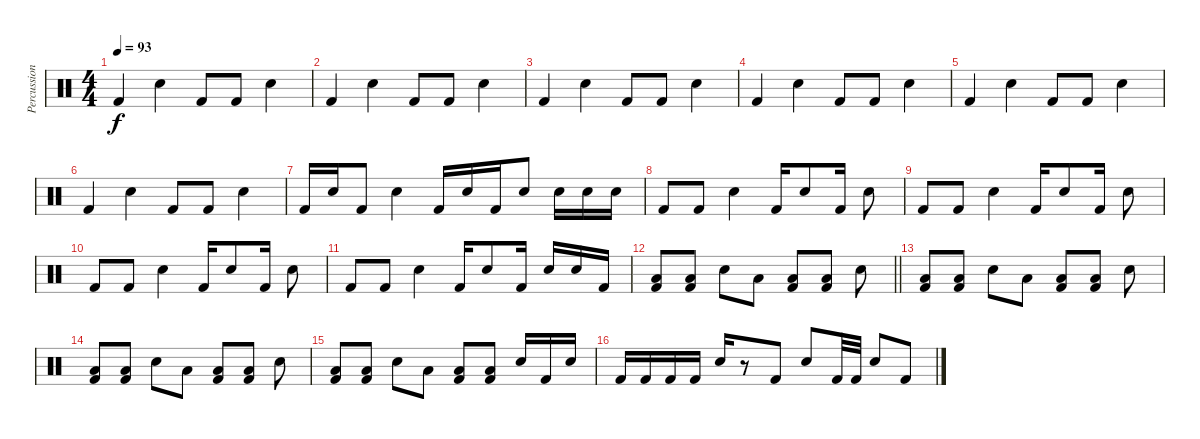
\track ("Percussion" "Percussion") {instrument percussion}
\staff {score}
\articulation defaults
\ts (4 4)
\tempo 93
\clef neutral
\ks c "Kick (hit) 2".4{dy f} "Snare (hit) 2".4 "Kick (hit) 2".8 "Kick (hit) 2".8 "Snare (hit) 2".4
|
"Kick (hit) 2".4 "Snare (hit) 2".4 "Kick (hit) 2".8 "Kick (hit) 2".8 "Snare (hit) 2".4 |
"Kick (hit) 2".4 "Snare (hit) 2".4 "Kick (hit) 2".8 "Kick (hit) 2".8 "Snare (hit) 2".4 |
"Kick (hit) 2".4 "Snare (hit) 2".4 "Kick (hit) 2".8 "Kick (hit) 2".8 "Snare (hit) 2".4 |
"Kick (hit) 2".4 "Snare (hit) 2".4 "Kick (hit) 2".8 "Kick (hit) 2".8 "Snare (hit) 2".4 |
"Kick (hit) 2".4 "Snare (hit) 2".4 "Kick (hit) 2".8 "Kick (hit) 2".8 "Snare (hit) 2".4 |
"Kick (hit) 2".16 "Snare (hit) 2".16 "Kick (hit) 2".8 "Snare (hit) 2".4 "Kick (hit) 2".16 "Snare (hit) 2".16 "Kick (hit) 2".16 "Snare (hit) 2".8 "Snare (hit) 2".16 "Snare (hit) 2".16 "Snare (hit) 2".16 |
"Kick (hit) 2".8 "Kick (hit) 2".8 "Snare (hit) 2".4 "Kick (hit) 2".16 "Snare (hit) 2".8 "Kick (hit) 2".16 "Snare (hit) 2".8 |
"Kick (hit) 2".8 "Kick (hit) 2".8 "Snare (hit) 2".4 "Kick (hit) 2".16 "Snare (hit) 2".8 "Kick (hit) 2".16 "Snare (hit) 2".8 |
"Kick (hit) 2".8 "Kick (hit) 2".8 "Snare (hit) 2".4 "Kick (hit) 2".16 "Snare (hit) 2".8 "Kick (hit) 2".16 "Snare (hit) 2".8 |
"Kick (hit) 2".8 "Kick (hit) 2".8 "Snare (hit) 2".4 "Kick (hit) 2".16 "Snare (hit) 2".8 "Kick (hit) 2".16 "Snare (hit) 2".16 "Snare (hit) 2".16 "Kick (hit) 2".16 |
\barLineRight lightlight
("Low Floor Tom (hit)" "Kick (hit) 2").8 ("Low Tom (hit)" "Kick (hit) 2").8 "Snare (hit) 2".8 "Low Tom (hit)".8 ("Low Floor Tom (hit)" "Kick (hit) 2").8 ("Low Tom (hit)" "Kick (hit) 2").8 "Snare (hit) 2".8 |
("Low Floor Tom (hit)" "Kick (hit) 2").8 ("Low Tom (hit)" "Kick (hit) 2").8 "Snare (hit) 2".8 "Low Tom (hit)".8 ("Low Floor Tom (hit)" "Kick (hit) 2").8 ("Low Tom (hit)" "Kick (hit) 2").8 "Snare (hit) 2".8 |
("Low Floor Tom (hit)" "Kick (hit) 2").8 ("Low Tom (hit)" "Kick (hit) 2").8 "Snare (hit) 2".8 "Low Tom (hit)".8 ("Low Floor Tom (hit)" "Kick (hit) 2").8 ("Low Tom (hit)" "Kick (hit) 2").8 "Snare (hit) 2".8 |
("Low Floor Tom (hit)" "Kick (hit) 2").8 ("Low Tom (hit)" "Kick (hit) 2").8 "Snare (hit) 2".8 "Low Tom (hit)".8 ("Low Floor Tom (hit)" "Kick (hit) 2").8 ("Low Tom (hit)" "Kick (hit) 2").8 "Snare (hit) 2".16 "Kick (hit) 2".16 "Snare (hit) 2".16 |
"Kick (hit) 2".16 "Kick (hit) 2".16 "Kick (hit) 2".16 "Kick (hit) 2".16 "Snare (hit) 2".16 r.8 "Kick (hit) 2".8 "Snare (hit) 2".8 "Kick (hit) 2".32 "Kick (hit) 2".32 "Snare (hit) 2".8 "Kick (hit) 2".8
